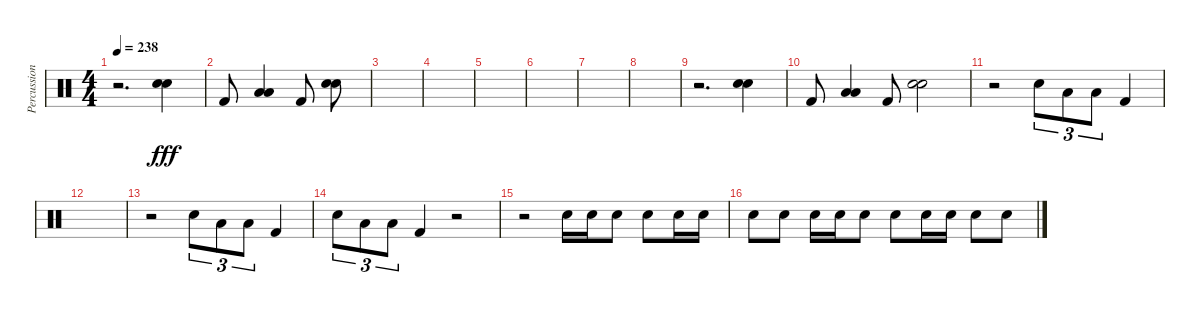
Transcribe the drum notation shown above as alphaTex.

\track ("Percussion" "Percussion") {instrument percussion}
\staff {score}
\articulation defaults
\ts (4 4)
\tempo 238
\clef neutral
\ks c
r.2{d dy fff} ("Electric Snare (hit)" "Electric Snare (hit)").4{bd 480} |
"Kick (hit) 2".8 ("Low Tom (hit)" "Low Floor Tom (hit)").4{bd 480} "Kick (hit) 2".8 ("Electric Snare (hit)" "Electric Snare (hit)").8{bd 480} |
|
|
|
|
|
|
r.2{d} ("Electric Snare (hit)" "Electric Snare (hit)").4{bd 480} |
"Kick (hit) 2".8 ("Low Tom (hit)" "Low Floor Tom (hit)").4{bd 480} "Kick (hit) 2".8 ("Electric Snare (hit)" "Electric Snare (hit)").2{bd 480} |
r.2 "Electric Snare (hit)".8{tu (3 2)} "Low Tom (hit)".8{tu (3 2)} "Low Floor Tom (hit)".8{tu (3 2)} "Kick (hit) 2".4 |
|
r.2 "Electric Snare (hit)".8{tu (3 2)} "Low Tom (hit)".8{tu (3 2)} "Low Floor Tom (hit)".8{tu (3 2)} "Kick (hit) 2".4 |
"Electric Snare (hit)".8{tu (3 2)} "Low Tom (hit)".8{tu (3 2)} "Low Floor Tom (hit)".8{tu (3 2)} "Kick (hit) 2".4 r.2 |
r.2 "Electric Snare (hit)".16 "Electric Snare (hit)".16 "Electric Snare (hit)".8 "Electric Snare (hit)".8 "Electric Snare (hit)".16 "Electric Snare (hit)".16 |
"Electric Snare (hit)".8 "Electric Snare (hit)".8 "Electric Snare (hit)".16 "Electric Snare (hit)".16 "Electric Snare (hit)".8 "Electric Snare (hit)".8 "Electric Snare (hit)".16 "Electric Snare (hit)".16 "Electric Snare (hit)".8 "Electric Snare (hit)".8
